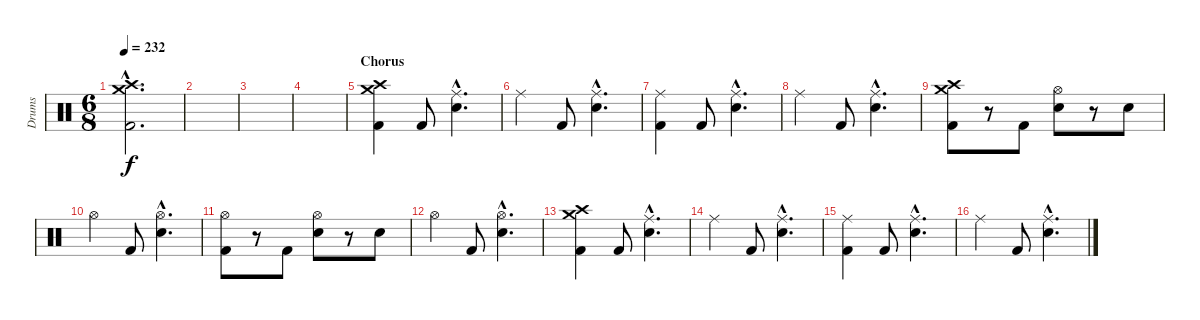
\track ("Drums" "Drums") {instrument percussion}
\staff {score}
\articulation defaults
\ts (6 8)
\tempo 232
\clef neutral
\ks c
("Crash medium (hit)"{hac} "Crash high (hit)"{hac} "Kick (hit) 2"{hac}).2{d dy f} |
|
|
|
\section ("" "Chorus")
("Crash medium (hit)" "Crash high (hit)" "Kick (hit) 2").4 "Kick (hit) 2".8 ("Ride (middle)"{hac} "Snare (hit) 2"{hac}).4{d} |
"Ride (middle)".4 "Kick (hit) 2".8 ("Ride (middle)"{hac} "Snare (hit) 2"{hac}).4{d} |
("Ride (middle)" "Kick (hit) 2").4 "Kick (hit) 2".8 ("Ride (middle)"{hac} "Snare (hit) 2"{hac}).4{d} |
"Ride (middle)".4 "Kick (hit) 2".8 ("Ride (middle)"{hac} "Snare (hit) 2"{hac}).4{d} |
("Crash medium (hit)" "Crash high (hit)" "Kick (hit) 2").8 r.8 "Kick (hit) 2".8 ("Hi-Hat (open)" "Snare (hit) 2").8 r.8 "Snare (hit) 2".8 |
"Hi-Hat (open)".4 "Kick (hit) 2".8 ("Hi-Hat (open)"{hac} "Snare (hit) 2"{hac}).4{d} |
("Hi-Hat (open)" "Kick (hit) 2").8 r.8 "Kick (hit) 2".8 ("Hi-Hat (open)" "Snare (hit) 2").8 r.8 "Snare (hit) 2".8 |
"Hi-Hat (open)".4 "Kick (hit) 2".8 ("Hi-Hat (open)"{hac} "Snare (hit) 2"{hac}).4{d} |
("Crash medium (hit)" "Crash high (hit)" "Kick (hit) 2").4 "Kick (hit) 2".8 ("Ride (middle)"{hac} "Snare (hit) 2"{hac}).4{d} |
"Ride (middle)".4 "Kick (hit) 2".8 ("Ride (middle)"{hac} "Snare (hit) 2"{hac}).4{d} |
("Ride (middle)" "Kick (hit) 2").4 "Kick (hit) 2".8 ("Ride (middle)"{hac} "Snare (hit) 2"{hac}).4{d} |
"Ride (middle)".4 "Kick (hit) 2".8 ("Ride (middle)"{hac} "Snare (hit) 2"{hac}).4{d}
